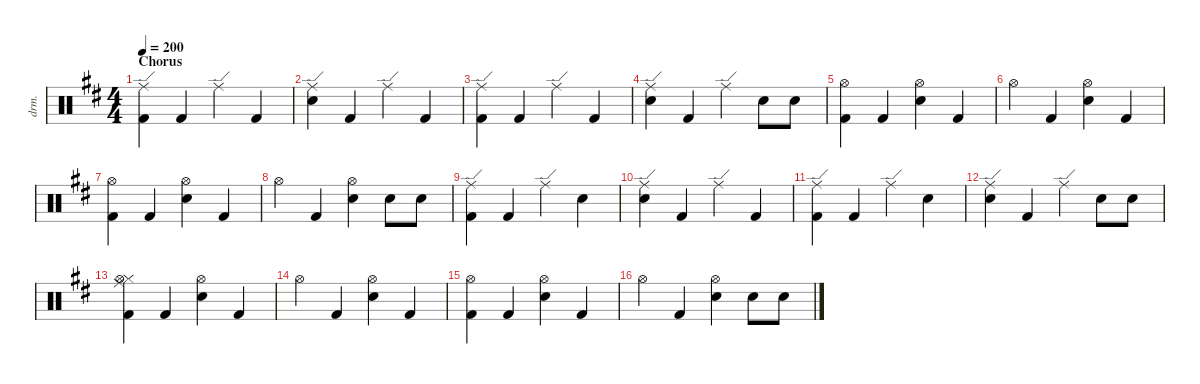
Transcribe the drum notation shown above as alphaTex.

\defaultSystemsLayout 4
\hideDynamics
\bracketExtendMode nobrackets
\otherSystemsTrackNameOrientation horizontal
\track ("Drums" "drm.") {instrument percussion}
\staff {score}
\articulation defaults
\ts (4 4)
\section ("" "Chorus")
\tempo 200
\clef neutral
\ks d
("Kick (hit) 2"{acc forcenatural} "Ride (edge)"{acc #}).4{dy ff beam Down} "Kick (hit) 2"{acc forcenatural}.4{beam Up} "Ride (edge)"{acc #}.4{beam Down} "Kick (hit) 2"{acc forcenatural}.4{beam Up} |
("Snare (hit) 2"{acc forcenatural} "Ride (edge)"{acc #}).4{beam Down} "Kick (hit) 2"{acc forcenatural}.4{beam Up} "Ride (edge)"{acc #}.4{beam Down} "Kick (hit) 2"{acc forcenatural}.4{beam Up} |
("Kick (hit) 2"{acc forcenatural} "Ride (edge)"{acc #}).4{beam Down} "Kick (hit) 2"{acc forcenatural}.4{beam Up} "Ride (edge)"{acc #}.4{beam Down} "Kick (hit) 2"{acc forcenatural}.4{beam Up} |
("Snare (hit) 2"{acc forcenatural} "Ride (edge)"{acc #}).4{beam Down} "Kick (hit) 2"{acc forcenatural}.4{beam Up} "Ride (edge)"{acc #}.4{beam Down} "Snare (hit) 2"{acc forcenatural}.8{beam Down} "Snare (hit) 2"{acc forcenatural}.8{beam Down} |
("Kick (hit) 2"{acc forcenatural} "Hi-Hat (open)"{acc #}).4{beam Down} "Kick (hit) 2"{acc forcenatural}.4{beam Up} ("Snare (hit) 2"{acc forcenatural} "Hi-Hat (open)"{acc #}).4{beam Down} "Kick (hit) 2"{acc forcenatural}.4{beam Up} |
"Hi-Hat (open)"{acc #}.4{beam Down} "Kick (hit) 2"{acc forcenatural}.4{beam Up} ("Snare (hit) 2"{acc forcenatural} "Hi-Hat (open)"{acc #}).4{beam Down} "Kick (hit) 2"{acc forcenatural}.4{beam Up} |
("Kick (hit) 2"{acc forcenatural} "Hi-Hat (open)"{acc #}).4{beam Down} "Kick (hit) 2"{acc forcenatural}.4{beam Up} ("Snare (hit) 2"{acc forcenatural} "Hi-Hat (open)"{acc #}).4{beam Down} "Kick (hit) 2"{acc forcenatural}.4{beam Up} |
"Hi-Hat (open)"{acc #}.4{beam Down} "Kick (hit) 2"{acc forcenatural}.4{beam Up} ("Snare (hit) 2"{acc forcenatural} "Hi-Hat (open)"{acc #}).4{beam Down} "Snare (hit) 2"{acc forcenatural}.8{beam Down} "Snare (hit) 2"{acc forcenatural}.8{beam Down} |
("Kick (hit) 2"{acc forcenatural} "Ride (edge)"{acc #}).4{beam Down} "Kick (hit) 2"{acc forcenatural}.4{beam Up} "Ride (edge)"{acc #}.4{beam Down} "Snare (hit) 2"{acc forcenatural}.4{dy mp beam Down} |
("Snare (hit) 2"{acc forcenatural} "Ride (edge)"{acc #}).4{dy ff beam Down} "Kick (hit) 2"{acc forcenatural}.4{beam Up} "Ride (edge)"{acc #}.4{beam Down} "Kick (hit) 2"{acc forcenatural}.4{beam Up} |
("Kick (hit) 2"{acc forcenatural} "Ride (edge)"{acc #}).4{beam Down} "Kick (hit) 2"{acc forcenatural}.4{beam Up} "Ride (edge)"{acc #}.4{beam Down} "Snare (hit) 2"{acc forcenatural}.4{dy mp beam Down} |
("Snare (hit) 2"{acc forcenatural} "Ride (edge)"{acc #}).4{dy ff beam Down} "Kick (hit) 2"{acc forcenatural}.4{beam Up} "Ride (edge)"{acc #}.4{beam Down} "Snare (hit) 2"{acc forcenatural}.8{beam Down} "Snare (hit) 2"{acc forcenatural}.8{beam Down} |
("Kick (hit) 2"{acc forcenatural} "Hi-Hat (closed)"{acc #} "Hi-Hat (open)"{acc #} "Ride (middle)"{acc #}).4{beam Down} "Kick (hit) 2"{acc forcenatural}.4{beam Up} ("Snare (hit) 2"{acc forcenatural} "Hi-Hat (open)"{acc #}).4{beam Down} "Kick (hit) 2"{acc forcenatural}.4{beam Up} |
"Hi-Hat (open)"{acc #}.4{beam Down} "Kick (hit) 2"{acc forcenatural}.4{beam Up} ("Snare (hit) 2"{acc forcenatural} "Hi-Hat (open)"{acc #}).4{beam Down} "Kick (hit) 2"{acc forcenatural}.4{beam Up} |
("Kick (hit) 2"{acc forcenatural} "Hi-Hat (open)"{acc #}).4{beam Down} "Kick (hit) 2"{acc forcenatural}.4{beam Up} ("Snare (hit) 2"{acc forcenatural} "Hi-Hat (open)"{acc #}).4{beam Down} "Kick (hit) 2"{acc forcenatural}.4{beam Up} |
"Hi-Hat (open)"{acc #}.4{beam Down} "Kick (hit) 2"{acc forcenatural}.4{beam Up} ("Snare (hit) 2"{acc forcenatural} "Hi-Hat (open)"{acc #}).4{beam Down} "Snare (hit) 2"{acc forcenatural}.8{beam Down} "Snare (hit) 2"{acc forcenatural}.8{beam Down}
